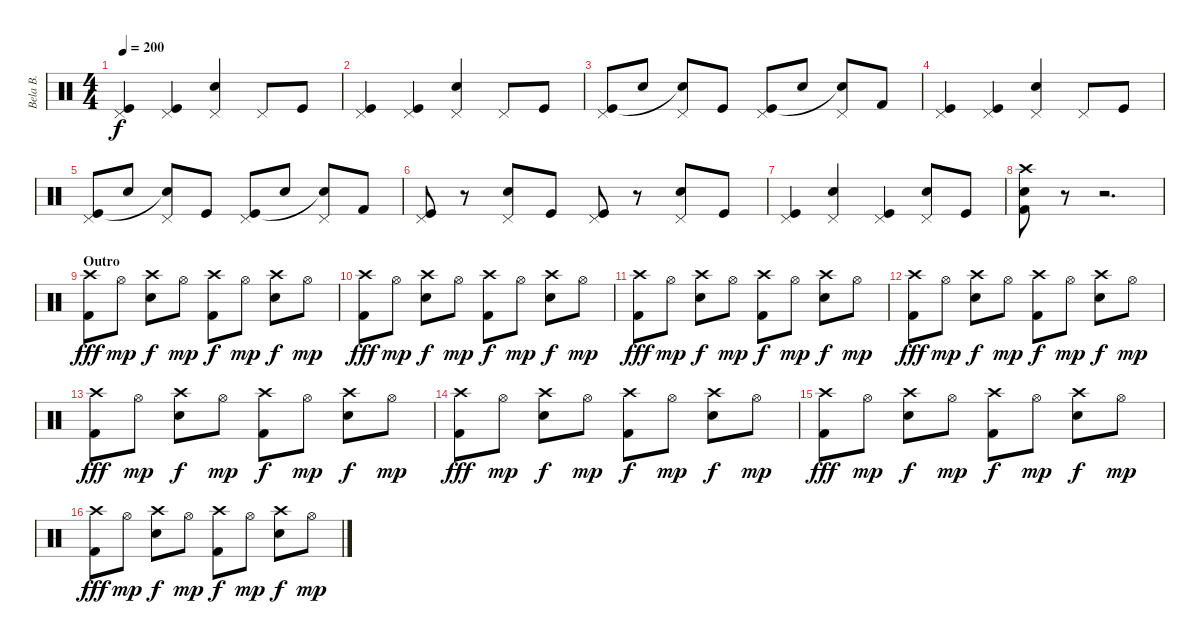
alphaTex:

\track ("Bela B. " "Bela B. ") {instrument percussion}
\staff {score}
\articulation defaults
\ts (4 4)
\tempo 200
\clef neutral
\ks c
("Pedal Hi-Hat (hit)" "Kick (hit)").4{dy f} ("Pedal Hi-Hat (hit)" "Kick (hit)").4 ("Pedal Hi-Hat (hit)" "Snare (hit) 2").4 "Pedal Hi-Hat (hit)".8 "Kick (hit)".8 |
("Pedal Hi-Hat (hit)" "Kick (hit)").4 ("Pedal Hi-Hat (hit)" "Kick (hit)").4 ("Pedal Hi-Hat (hit)" "Snare (hit) 2").4 "Pedal Hi-Hat (hit)".8 "Kick (hit)".8 |
("Pedal Hi-Hat (hit)" "Kick (hit)").8 "Snare (hit) 2".8 ("Pedal Hi-Hat (hit)" "Electric Snare (hit)"{t}).8 "Kick (hit)".8 ("Pedal Hi-Hat (hit)" "Kick (hit)").8 "Snare (hit) 2".8 ("Pedal Hi-Hat (hit)" "Electric Snare (hit)"{t}).8 "Kick (hit) 2".8 |
("Pedal Hi-Hat (hit)" "Kick (hit)").4 ("Pedal Hi-Hat (hit)" "Kick (hit)").4 ("Pedal Hi-Hat (hit)" "Snare (hit) 2").4 "Pedal Hi-Hat (hit)".8 "Kick (hit)".8 |
("Pedal Hi-Hat (hit)" "Kick (hit)").8 "Snare (hit) 2".8 ("Pedal Hi-Hat (hit)" "Electric Snare (hit)"{t}).8 "Kick (hit)".8 ("Pedal Hi-Hat (hit)" "Kick (hit)").8 "Snare (hit) 2".8 ("Pedal Hi-Hat (hit)" "Electric Snare (hit)"{t}).8 "Kick (hit) 2".8 |
("Pedal Hi-Hat (hit)" "Kick (hit)").8 r.8 ("Pedal Hi-Hat (hit)" "Snare (hit) 2").8 "Kick (hit)".8 ("Pedal Hi-Hat (hit)" "Kick (hit)").8 r.8 ("Pedal Hi-Hat (hit)" "Snare (hit) 2").8 "Kick (hit)".8 |
("Pedal Hi-Hat (hit)" "Kick (hit)").4 ("Pedal Hi-Hat (hit)" "Snare (hit) 2").4 ("Pedal Hi-Hat (hit)" "Kick (hit)").4 ("Pedal Hi-Hat (hit)" "Snare (hit) 2").8 "Kick (hit)".8 |
("Crash high (hit)" "Snare (hit) 2" "Kick (hit) 2").8 r.8 r.2{d} |
\section ("" "Outro")
("Crash high (hit)" "Kick (hit) 2").8{dy fff} "Hi-Hat (open)".8{dy mp} ("Crash high (hit)" "Snare (hit) 2").8{dy f} "Hi-Hat (open)".8{dy mp} ("Crash high (hit)" "Kick (hit) 2").8{dy f} "Hi-Hat (open)".8{dy mp} ("Crash high (hit)" "Snare (hit) 2").8{dy f} "Hi-Hat (open)".8{dy mp} |
("Crash high (hit)" "Kick (hit) 2").8{dy fff} "Hi-Hat (open)".8{dy mp} ("Crash high (hit)" "Snare (hit) 2").8{dy f} "Hi-Hat (open)".8{dy mp} ("Crash high (hit)" "Kick (hit) 2").8{dy f} "Hi-Hat (open)".8{dy mp} ("Crash high (hit)" "Snare (hit) 2").8{dy f} "Hi-Hat (open)".8{dy mp} |
("Crash high (hit)" "Kick (hit) 2").8{dy fff} "Hi-Hat (open)".8{dy mp} ("Crash high (hit)" "Snare (hit) 2").8{dy f} "Hi-Hat (open)".8{dy mp} ("Crash high (hit)" "Kick (hit) 2").8{dy f} "Hi-Hat (open)".8{dy mp} ("Crash high (hit)" "Snare (hit) 2").8{dy f} "Hi-Hat (open)".8{dy mp} |
("Crash high (hit)" "Kick (hit) 2").8{dy fff} "Hi-Hat (open)".8{dy mp} ("Crash high (hit)" "Snare (hit) 2").8{dy f} "Hi-Hat (open)".8{dy mp} ("Crash high (hit)" "Kick (hit) 2").8{dy f} "Hi-Hat (open)".8{dy mp} ("Crash high (hit)" "Snare (hit) 2").8{dy f} "Hi-Hat (open)".8{dy mp} |
("Crash high (hit)" "Kick (hit) 2").8{dy fff} "Hi-Hat (open)".8{dy mp} ("Crash high (hit)" "Snare (hit) 2").8{dy f} "Hi-Hat (open)".8{dy mp} ("Crash high (hit)" "Kick (hit) 2").8{dy f} "Hi-Hat (open)".8{dy mp} ("Crash high (hit)" "Snare (hit) 2").8{dy f} "Hi-Hat (open)".8{dy mp} |
("Crash high (hit)" "Kick (hit) 2").8{dy fff} "Hi-Hat (open)".8{dy mp} ("Crash high (hit)" "Snare (hit) 2").8{dy f} "Hi-Hat (open)".8{dy mp} ("Crash high (hit)" "Kick (hit) 2").8{dy f} "Hi-Hat (open)".8{dy mp} ("Crash high (hit)" "Snare (hit) 2").8{dy f} "Hi-Hat (open)".8{dy mp} |
("Crash high (hit)" "Kick (hit) 2").8{dy fff} "Hi-Hat (open)".8{dy mp} ("Crash high (hit)" "Snare (hit) 2").8{dy f} "Hi-Hat (open)".8{dy mp} ("Crash high (hit)" "Kick (hit) 2").8{dy f} "Hi-Hat (open)".8{dy mp} ("Crash high (hit)" "Snare (hit) 2").8{dy f} "Hi-Hat (open)".8{dy mp} |
("Crash high (hit)" "Kick (hit) 2").8{dy fff} "Hi-Hat (open)".8{dy mp} ("Crash high (hit)" "Snare (hit) 2").8{dy f} "Hi-Hat (open)".8{dy mp} ("Crash high (hit)" "Kick (hit) 2").8{dy f} "Hi-Hat (open)".8{dy mp} ("Crash high (hit)" "Snare (hit) 2").8{dy f} "Hi-Hat (open)".8{dy mp}
